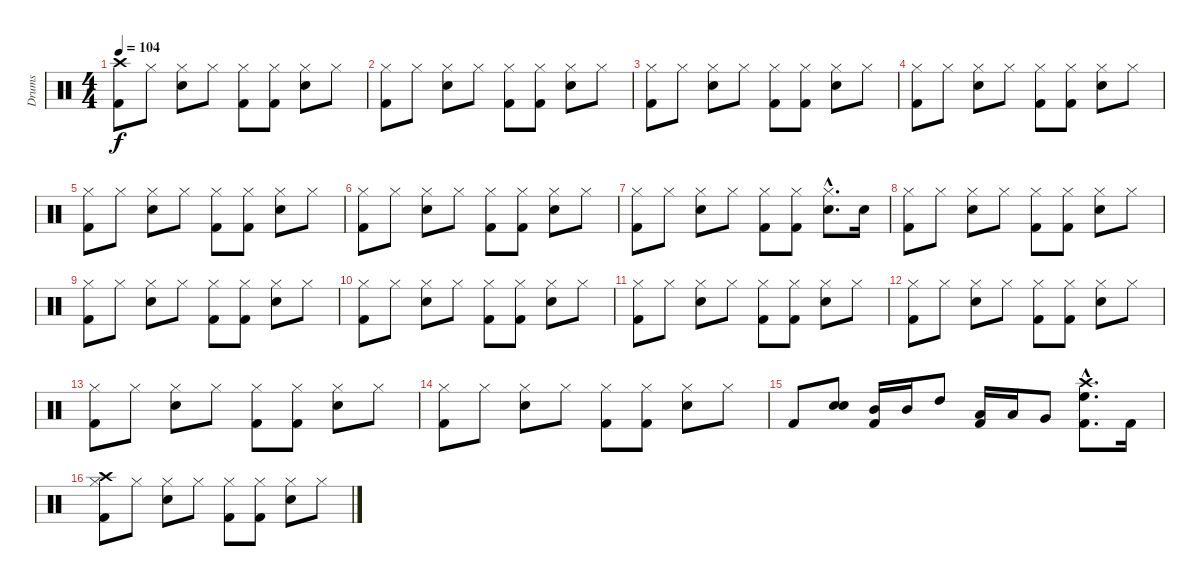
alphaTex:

\track ("Drums" "Drums") {instrument percussion}
\staff {score}
\articulation defaults
\ts (4 4)
\tempo 104
\clef neutral
\ks c
("Kick (hit) 2" "Crash high (hit)").8{dy f} "Hi-Hat (closed)".8 ("Snare (hit) 2" "Hi-Hat (closed)").8 "Hi-Hat (closed)".8 ("Kick (hit) 2" "Hi-Hat (closed)").8 ("Kick (hit) 2" "Hi-Hat (closed)").8 ("Snare (hit) 2" "Hi-Hat (closed)").8 "Hi-Hat (closed)".8 |
("Kick (hit) 2" "Hi-Hat (closed)").8 "Hi-Hat (closed)".8 ("Snare (hit) 2" "Hi-Hat (closed)").8 "Hi-Hat (closed)".8 ("Kick (hit) 2" "Hi-Hat (closed)").8 ("Kick (hit) 2" "Hi-Hat (closed)").8 ("Snare (hit) 2" "Hi-Hat (closed)").8 "Hi-Hat (closed)".8 |
("Kick (hit) 2" "Hi-Hat (closed)").8 "Hi-Hat (closed)".8 ("Snare (hit) 2" "Hi-Hat (closed)").8 "Hi-Hat (closed)".8 ("Kick (hit) 2" "Hi-Hat (closed)").8 ("Kick (hit) 2" "Hi-Hat (closed)").8 ("Snare (hit) 2" "Hi-Hat (closed)").8 "Hi-Hat (closed)".8 |
("Kick (hit) 2" "Hi-Hat (closed)").8 "Hi-Hat (closed)".8 ("Snare (hit) 2" "Hi-Hat (closed)").8 "Hi-Hat (closed)".8 ("Kick (hit) 2" "Hi-Hat (closed)").8 ("Kick (hit) 2" "Hi-Hat (closed)").8 ("Snare (hit) 2" "Hi-Hat (closed)").8 "Hi-Hat (closed)".8 |
("Kick (hit) 2" "Hi-Hat (closed)").8 "Hi-Hat (closed)".8 ("Snare (hit) 2" "Hi-Hat (closed)").8 "Hi-Hat (closed)".8 ("Kick (hit) 2" "Hi-Hat (closed)").8 ("Kick (hit) 2" "Hi-Hat (closed)").8 ("Snare (hit) 2" "Hi-Hat (closed)").8 "Hi-Hat (closed)".8 |
("Kick (hit) 2" "Hi-Hat (closed)").8 "Hi-Hat (closed)".8 ("Snare (hit) 2" "Hi-Hat (closed)").8 "Hi-Hat (closed)".8 ("Kick (hit) 2" "Hi-Hat (closed)").8 ("Kick (hit) 2" "Hi-Hat (closed)").8 ("Snare (hit) 2" "Hi-Hat (closed)").8 "Hi-Hat (closed)".8 |
("Kick (hit) 2" "Hi-Hat (closed)").8 "Hi-Hat (closed)".8 ("Snare (hit) 2" "Hi-Hat (closed)").8 "Hi-Hat (closed)".8 ("Kick (hit) 2" "Hi-Hat (closed)").8 ("Kick (hit) 2" "Hi-Hat (closed)").8 ("Snare (hit) 2"{hac} "Hi-Hat (closed)"{hac}).8{d} "Snare (hit) 2".16 |
("Kick (hit) 2" "Hi-Hat (closed)").8 "Hi-Hat (closed)".8 ("Snare (hit) 2" "Hi-Hat (closed)").8 "Hi-Hat (closed)".8 ("Kick (hit) 2" "Hi-Hat (closed)").8 ("Kick (hit) 2" "Hi-Hat (closed)").8 ("Snare (hit) 2" "Hi-Hat (closed)").8 "Hi-Hat (closed)".8 |
("Kick (hit) 2" "Hi-Hat (closed)").8 "Hi-Hat (closed)".8 ("Snare (hit) 2" "Hi-Hat (closed)").8 "Hi-Hat (closed)".8 ("Kick (hit) 2" "Hi-Hat (closed)").8 ("Kick (hit) 2" "Hi-Hat (closed)").8 ("Snare (hit) 2" "Hi-Hat (closed)").8 "Hi-Hat (closed)".8 |
("Kick (hit) 2" "Hi-Hat (closed)").8 "Hi-Hat (closed)".8 ("Snare (hit) 2" "Hi-Hat (closed)").8 "Hi-Hat (closed)".8 ("Kick (hit) 2" "Hi-Hat (closed)").8 ("Kick (hit) 2" "Hi-Hat (closed)").8 ("Snare (hit) 2" "Hi-Hat (closed)").8 "Hi-Hat (closed)".8 |
("Kick (hit) 2" "Hi-Hat (closed)").8 "Hi-Hat (closed)".8 ("Snare (hit) 2" "Hi-Hat (closed)").8 "Hi-Hat (closed)".8 ("Kick (hit) 2" "Hi-Hat (closed)").8 ("Kick (hit) 2" "Hi-Hat (closed)").8 ("Snare (hit) 2" "Hi-Hat (closed)").8 "Hi-Hat (closed)".8 |
("Kick (hit) 2" "Hi-Hat (closed)").8 "Hi-Hat (closed)".8 ("Snare (hit) 2" "Hi-Hat (closed)").8 "Hi-Hat (closed)".8 ("Kick (hit) 2" "Hi-Hat (closed)").8 ("Kick (hit) 2" "Hi-Hat (closed)").8 ("Snare (hit) 2" "Hi-Hat (closed)").8 "Hi-Hat (closed)".8 |
("Kick (hit) 2" "Hi-Hat (closed)").8 "Hi-Hat (closed)".8 ("Snare (hit) 2" "Hi-Hat (closed)").8 "Hi-Hat (closed)".8 ("Kick (hit) 2" "Hi-Hat (closed)").8 ("Kick (hit) 2" "Hi-Hat (closed)").8 ("Snare (hit) 2" "Hi-Hat (closed)").8 "Hi-Hat (closed)".8 |
("Kick (hit) 2" "Hi-Hat (closed)").8 "Hi-Hat (closed)".8 ("Snare (hit) 2" "Hi-Hat (closed)").8 "Hi-Hat (closed)".8 ("Kick (hit) 2" "Hi-Hat (closed)").8 ("Kick (hit) 2" "Hi-Hat (closed)").8 ("Snare (hit) 2" "Hi-Hat (closed)").8 "Hi-Hat (closed)".8 |
"Kick (hit) 2".8 ("Snare (hit) 2" "Snare (hit) 2").8 ("Mid Tom (hit)" "Kick (hit) 2").16 "Mid Tom (hit)".16 "High Tom (hit)".8 ("Low Tom (hit)" "Kick (hit) 2").16 "Low Tom (hit)".16 "Very Low Tom (hit)".8 ("Kick (hit) 2"{hac} "High Floor Tom (hit)"{hac} "Crash high (hit)"{hac}).8{d} "Kick (hit) 2".16 |
("Kick (hit) 2" "Hi-Hat (closed)" "Crash high (hit)").8 "Hi-Hat (closed)".8 ("Snare (hit) 2" "Hi-Hat (closed)").8 "Hi-Hat (closed)".8 ("Kick (hit) 2" "Hi-Hat (closed)").8 ("Kick (hit) 2" "Hi-Hat (closed)").8 ("Snare (hit) 2" "Hi-Hat (closed)").8 "Hi-Hat (closed)".8
